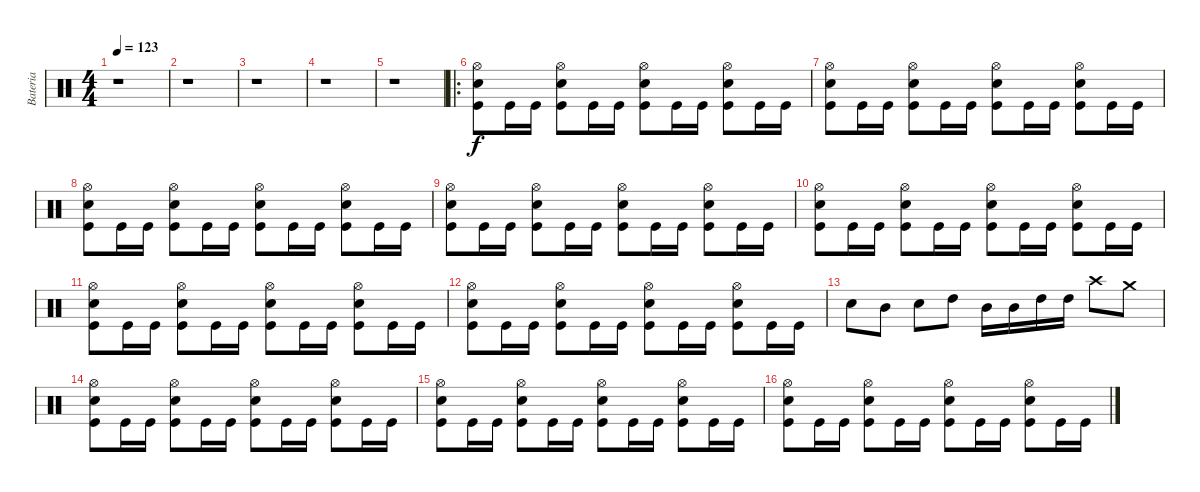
\track ("Bateria" "Bateria") {instrument percussion}
\staff {score}
\articulation defaults
\ts (4 4)
\tempo 123
\clef neutral
\ks c
r.1{dy f} |
r.1 |
r.1 |
r.1 |
r.1 |
\ro
("Hi-Hat (open)" "Snare (hit) 2" "Kick (hit)").8 "Kick (hit)".16 "Kick (hit)".16 ("Hi-Hat (open)" "Snare (hit) 2" "Kick (hit)").8 "Kick (hit)".16 "Kick (hit)".16 ("Hi-Hat (open)" "Snare (hit) 2" "Kick (hit)").8 "Kick (hit)".16 "Kick (hit)".16 ("Hi-Hat (open)" "Snare (hit) 2" "Kick (hit)").8 "Kick (hit)".16 "Kick (hit)".16 |
("Hi-Hat (open)" "Snare (hit) 2" "Kick (hit)").8 "Kick (hit)".16 "Kick (hit)".16 ("Hi-Hat (open)" "Snare (hit) 2" "Kick (hit)").8 "Kick (hit)".16 "Kick (hit)".16 ("Hi-Hat (open)" "Snare (hit) 2" "Kick (hit)").8 "Kick (hit)".16 "Kick (hit)".16 ("Hi-Hat (open)" "Snare (hit) 2" "Kick (hit)").8 "Kick (hit)".16 "Kick (hit)".16 |
("Hi-Hat (open)" "Snare (hit) 2" "Kick (hit)").8 "Kick (hit)".16 "Kick (hit)".16 ("Hi-Hat (open)" "Snare (hit) 2" "Kick (hit)").8 "Kick (hit)".16 "Kick (hit)".16 ("Hi-Hat (open)" "Snare (hit) 2" "Kick (hit)").8 "Kick (hit)".16 "Kick (hit)".16 ("Hi-Hat (open)" "Snare (hit) 2" "Kick (hit)").8 "Kick (hit)".16 "Kick (hit)".16 |
("Hi-Hat (open)" "Snare (hit) 2" "Kick (hit)").8 "Kick (hit)".16 "Kick (hit)".16 ("Hi-Hat (open)" "Snare (hit) 2" "Kick (hit)").8 "Kick (hit)".16 "Kick (hit)".16 ("Hi-Hat (open)" "Snare (hit) 2" "Kick (hit)").8 "Kick (hit)".16 "Kick (hit)".16 ("Hi-Hat (open)" "Snare (hit) 2" "Kick (hit)").8 "Kick (hit)".16 "Kick (hit)".16 |
("Hi-Hat (open)" "Snare (hit) 2" "Kick (hit)").8 "Kick (hit)".16 "Kick (hit)".16 ("Hi-Hat (open)" "Snare (hit) 2" "Kick (hit)").8 "Kick (hit)".16 "Kick (hit)".16 ("Hi-Hat (open)" "Snare (hit) 2" "Kick (hit)").8 "Kick (hit)".16 "Kick (hit)".16 ("Hi-Hat (open)" "Snare (hit) 2" "Kick (hit)").8 "Kick (hit)".16 "Kick (hit)".16 |
("Hi-Hat (open)" "Snare (hit) 2" "Kick (hit)").8 "Kick (hit)".16 "Kick (hit)".16 ("Hi-Hat (open)" "Snare (hit) 2" "Kick (hit)").8 "Kick (hit)".16 "Kick (hit)".16 ("Hi-Hat (open)" "Snare (hit) 2" "Kick (hit)").8 "Kick (hit)".16 "Kick (hit)".16 ("Hi-Hat (open)" "Snare (hit) 2" "Kick (hit)").8 "Kick (hit)".16 "Kick (hit)".16 |
("Hi-Hat (open)" "Snare (hit) 2" "Kick (hit)").8 "Kick (hit)".16 "Kick (hit)".16 ("Hi-Hat (open)" "Snare (hit) 2" "Kick (hit)").8 "Kick (hit)".16 "Kick (hit)".16 ("Hi-Hat (open)" "Snare (hit) 2" "Kick (hit)").8 "Kick (hit)".16 "Kick (hit)".16 ("Hi-Hat (open)" "Snare (hit) 2" "Kick (hit)").8 "Kick (hit)".16 "Kick (hit)".16 |
"Snare (hit) 2".8 "Mid Tom (hit)".8 "Snare (hit) 2".8 "High Tom (hit)".8 "Mid Tom (hit)".16 "Mid Tom (hit)".16 "High Tom (hit)".16 "High Tom (hit)".16 "Crash high (hit)".8 "Crash medium (hit)".8 |
("Hi-Hat (open)" "Snare (hit) 2" "Kick (hit)").8 "Kick (hit)".16 "Kick (hit)".16 ("Hi-Hat (open)" "Snare (hit) 2" "Kick (hit)").8 "Kick (hit)".16 "Kick (hit)".16 ("Hi-Hat (open)" "Snare (hit) 2" "Kick (hit)").8 "Kick (hit)".16 "Kick (hit)".16 ("Hi-Hat (open)" "Snare (hit) 2" "Kick (hit)").8 "Kick (hit)".16 "Kick (hit)".16 |
("Hi-Hat (open)" "Snare (hit) 2" "Kick (hit)").8 "Kick (hit)".16 "Kick (hit)".16 ("Hi-Hat (open)" "Snare (hit) 2" "Kick (hit)").8 "Kick (hit)".16 "Kick (hit)".16 ("Hi-Hat (open)" "Snare (hit) 2" "Kick (hit)").8 "Kick (hit)".16 "Kick (hit)".16 ("Hi-Hat (open)" "Snare (hit) 2" "Kick (hit)").8 "Kick (hit)".16 "Kick (hit)".16 |
("Hi-Hat (open)" "Snare (hit) 2" "Kick (hit)").8 "Kick (hit)".16 "Kick (hit)".16 ("Hi-Hat (open)" "Snare (hit) 2" "Kick (hit)").8 "Kick (hit)".16 "Kick (hit)".16 ("Hi-Hat (open)" "Snare (hit) 2" "Kick (hit)").8 "Kick (hit)".16 "Kick (hit)".16 ("Hi-Hat (open)" "Snare (hit) 2" "Kick (hit)").8 "Kick (hit)".16 "Kick (hit)".16
